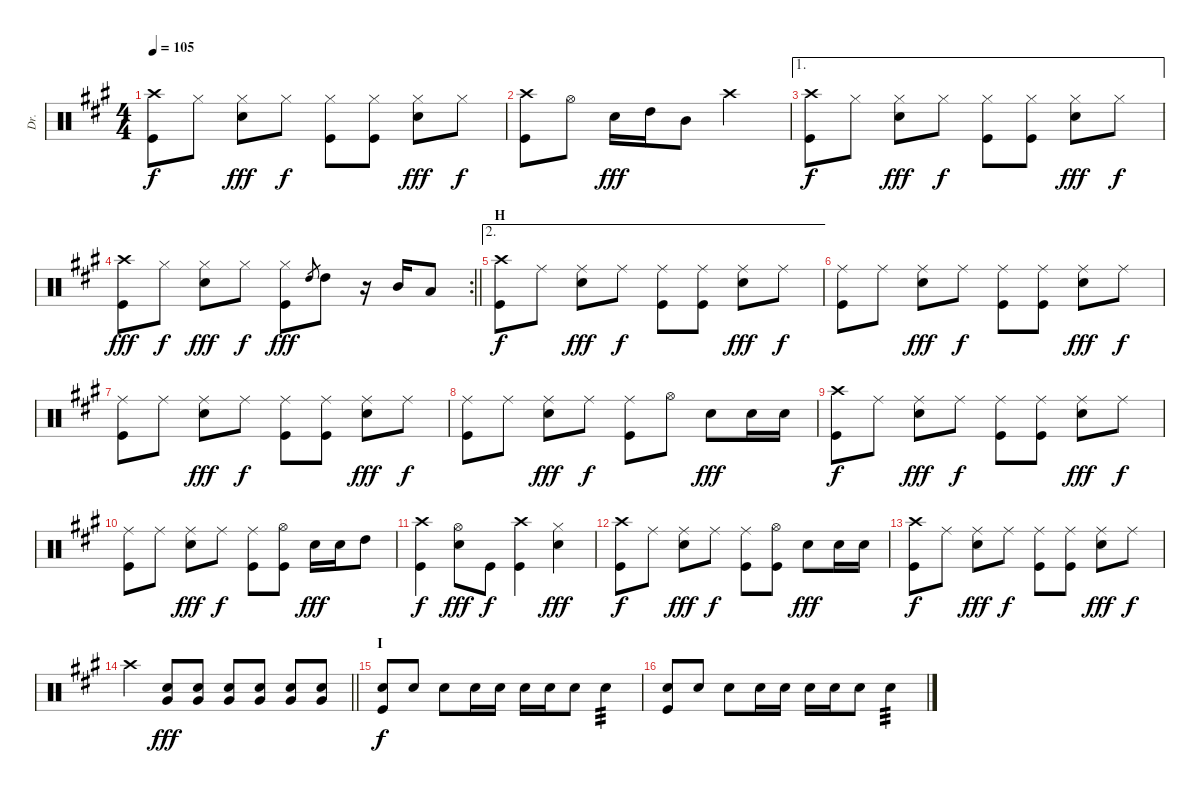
\track ("Dr." "Dr.") {instrument percussion}
\staff {score}
\articulation defaults
\ts (4 4)
\tempo 105
\clef neutral
\ks a
("Crash high (hit)" "Kick (hit)").8{dy f} "Hi-Hat (closed)".8 ("Hi-Hat (closed)" "Snare (hit) 2").8{dy fff} "Hi-Hat (closed)".8{dy f} ("Hi-Hat (closed)" "Kick (hit)").8 ("Hi-Hat (closed)" "Kick (hit)").8 ("Hi-Hat (closed)" "Snare (hit) 2").8{dy fff} "Hi-Hat (closed)".8{dy f} |
("Crash high (hit)" "Kick (hit)").8 "Hi-Hat (open)".8 "Snare (hit) 2".16{dy fff} "High Tom (hit)".16 "Mid Tom (hit)".8 "Crash high (hit)".2 |
\ae 1
("Crash high (hit)" "Kick (hit)").8{dy f} "Hi-Hat (closed)".8 ("Hi-Hat (closed)" "Snare (hit) 2").8{dy fff} "Hi-Hat (closed)".8{dy f} ("Hi-Hat (closed)" "Kick (hit)").8 ("Hi-Hat (closed)" "Kick (hit)").8 ("Hi-Hat (closed)" "Snare (hit) 2").8{dy fff} "Hi-Hat (closed)".8{dy f} |
\rc 2
\barLineRight lightlight
("Crash high (hit)" "Kick (hit)").8{dy fff} "Hi-Hat (closed)".8{dy f} ("Hi-Hat (closed)" "Snare (hit) 2").8{dy fff} "Hi-Hat (closed)".8{dy f} ("Hi-Hat (closed)" "Kick (hit)").8{dy fff} "High Tom (hit)".8{gr} "High Tom (hit)".8 r.16 "Mid Tom (hit)".16 "Low Tom (hit)".8 |
\ae 2
\section ("" "H")
("Crash high (hit)" "Kick (hit)").8{dy f} "Ride (middle)".8 ("Ride (middle)" "Snare (hit) 2").8{dy fff} "Ride (middle)".8{dy f} ("Ride (middle)" "Kick (hit)").8 ("Ride (middle)" "Kick (hit)").8 ("Ride (middle)" "Snare (hit) 2").8{dy fff} "Ride (middle)".8{dy f} |
("Ride (middle)" "Kick (hit)").8 "Ride (middle)".8 ("Ride (middle)" "Snare (hit) 2").8{dy fff} "Ride (middle)".8{dy f} ("Ride (middle)" "Kick (hit)").8 ("Ride (middle)" "Kick (hit)").8 ("Ride (middle)" "Snare (hit) 2").8{dy fff} "Ride (middle)".8{dy f} |
("Ride (middle)" "Kick (hit)").8 "Ride (middle)".8 ("Ride (middle)" "Snare (hit) 2").8{dy fff} "Ride (middle)".8{dy f} ("Ride (middle)" "Kick (hit)").8 ("Ride (middle)" "Kick (hit)").8 ("Ride (middle)" "Snare (hit) 2").8{dy fff} "Ride (middle)".8{dy f} |
("Ride (middle)" "Kick (hit)").8 "Ride (middle)".8 ("Ride (middle)" "Snare (hit) 2").8{dy fff} "Ride (middle)".8{dy f} ("Ride (middle)" "Kick (hit)").8 "Hi-Hat (open)".8 "Snare (hit) 2".8{dy fff} "Snare (hit) 2".16 "Snare (hit) 2".16 |
("Crash high (hit)" "Kick (hit)").8{dy f} "Ride (middle)".8 ("Ride (middle)" "Snare (hit) 2").8{dy fff} "Ride (middle)".8{dy f} ("Ride (middle)" "Kick (hit)").8 ("Ride (middle)" "Kick (hit)").8 ("Ride (middle)" "Snare (hit) 2").8{dy fff} "Ride (middle)".8{dy f} |
("Ride (middle)" "Kick (hit)").8 "Ride (middle)".8 ("Ride (middle)" "Snare (hit) 2").8{dy fff} "Ride (middle)".8{dy f} ("Ride (middle)" "Kick (hit)").8 ("Hi-Hat (open)" "Kick (hit)").8 "Snare (hit) 2".16{dy fff} "Snare (hit) 2".16 "High Tom (hit)".8 |
("Crash high (hit)" "Kick (hit)").4{dy f} ("Hi-Hat (open)" "Snare (hit) 2").8{dy fff} "Kick (hit)".8{dy f} ("Crash high (hit)" "Kick (hit)").4 ("Hi-Hat (closed)" "Snare (hit) 2").4{dy fff} |
("Crash high (hit)" "Kick (hit)").8{dy f} "Ride (middle)".8 ("Ride (middle)" "Snare (hit) 2").8{dy fff} "Ride (middle)".8{dy f} ("Ride (middle)" "Kick (hit)").8 ("Hi-Hat (open)" "Kick (hit)").8 "Snare (hit) 2".8{dy fff} "Snare (hit) 2".16 "Snare (hit) 2".16 |
("Crash high (hit)" "Kick (hit)").8{dy f} "Ride (middle)".8 ("Ride (middle)" "Snare (hit) 2").8{dy fff} "Ride (middle)".8{dy f} ("Ride (middle)" "Kick (hit)").8 ("Ride (middle)" "Kick (hit)").8 ("Ride (middle)" "Snare (hit) 2").8{dy fff} "Ride (middle)".8{dy f} |
\barLineRight lightlight "Crash high (hit)".4
("Very Low Tom (hit)" "Snare (hit) 2").8{dy fff} ("Very Low Tom (hit)" "Snare (hit) 2").8 ("Very Low Tom (hit)" "Snare (hit) 2").8 ("Very Low Tom (hit)" "Snare (hit) 2").8 ("Very Low Tom (hit)" "Snare (hit) 2").8 ("Very Low Tom (hit)" "Snare (hit) 2").8 |
\section ("" "I")
("Snare (hit) 2" "Kick (hit)").8{dy f} "Snare (hit) 2".8 "Snare (hit) 2".8 "Snare (hit) 2".16 "Snare (hit) 2".16 "Snare (hit) 2".16 "Snare (hit) 2".16 "Snare (hit) 2".8 "Snare (hit) 2".4{tp 3} |
("Snare (hit) 2" "Kick (hit)").8 "Snare (hit) 2".8 "Snare (hit) 2".8 "Snare (hit) 2".16 "Snare (hit) 2".16 "Snare (hit) 2".16 "Snare (hit) 2".16 "Snare (hit) 2".8 "Snare (hit) 2".4{tp 3}
